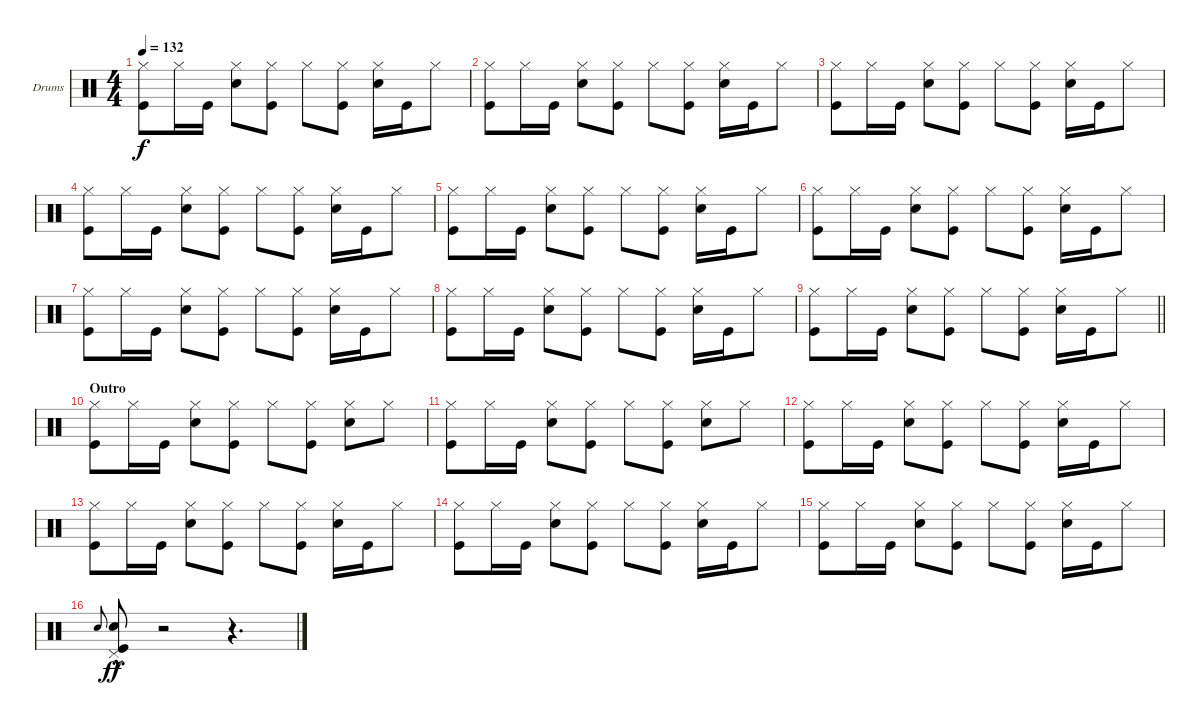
\bracketExtendMode groupsimilarinstruments
\firstSystemTrackNameOrientation horizontal
\otherSystemsTrackNameOrientation horizontal
\track ("Fabrizio Moretti" "Drums") {instrument percussion}
\staff {score}
\articulation defaults
\ts (4 4)
\tempo 132
\clef neutral
\ks c
("Hi-Hat (closed)" "Kick (hit)").8{dy f} "Hi-Hat (closed)".16 "Kick (hit)".16 ("Hi-Hat (closed)" "Snare (hit) 2").8 ("Hi-Hat (closed)" "Kick (hit)").8 "Hi-Hat (closed)".8 ("Hi-Hat (closed)" "Kick (hit)").8 ("Hi-Hat (closed)" "Snare (hit) 2").16 "Kick (hit)".16 "Hi-Hat (closed)".8 |
("Hi-Hat (closed)" "Kick (hit)").8 "Hi-Hat (closed)".16 "Kick (hit)".16 ("Hi-Hat (closed)" "Snare (hit) 2").8 ("Hi-Hat (closed)" "Kick (hit)").8 "Hi-Hat (closed)".8 ("Hi-Hat (closed)" "Kick (hit)").8 ("Hi-Hat (closed)" "Snare (hit) 2").16 "Kick (hit)".16 "Hi-Hat (closed)".8 |
("Hi-Hat (closed)" "Kick (hit)").8 "Hi-Hat (closed)".16 "Kick (hit)".16 ("Hi-Hat (closed)" "Snare (hit) 2").8 ("Hi-Hat (closed)" "Kick (hit)").8 "Hi-Hat (closed)".8 ("Hi-Hat (closed)" "Kick (hit)").8 ("Hi-Hat (closed)" "Snare (hit) 2").16 "Kick (hit)".16 "Hi-Hat (closed)".8 |
("Hi-Hat (closed)" "Kick (hit)").8 "Hi-Hat (closed)".16 "Kick (hit)".16 ("Hi-Hat (closed)" "Snare (hit) 2").8 ("Hi-Hat (closed)" "Kick (hit)").8 "Hi-Hat (closed)".8 ("Hi-Hat (closed)" "Kick (hit)").8 ("Hi-Hat (closed)" "Snare (hit) 2").16 "Kick (hit)".16 "Hi-Hat (closed)".8 |
("Hi-Hat (closed)" "Kick (hit)").8 "Hi-Hat (closed)".16 "Kick (hit)".16 ("Hi-Hat (closed)" "Snare (hit) 2").8 ("Hi-Hat (closed)" "Kick (hit)").8 "Hi-Hat (closed)".8 ("Hi-Hat (closed)" "Kick (hit)").8 ("Hi-Hat (closed)" "Snare (hit) 2").16 "Kick (hit)".16 "Hi-Hat (closed)".8 |
("Hi-Hat (closed)" "Kick (hit)").8 "Hi-Hat (closed)".16 "Kick (hit)".16 ("Hi-Hat (closed)" "Snare (hit) 2").8 ("Hi-Hat (closed)" "Kick (hit)").8 "Hi-Hat (closed)".8 ("Hi-Hat (closed)" "Kick (hit)").8 ("Hi-Hat (closed)" "Snare (hit) 2").16 "Kick (hit)".16 "Hi-Hat (closed)".8 |
("Hi-Hat (closed)" "Kick (hit)").8 "Hi-Hat (closed)".16 "Kick (hit)".16 ("Hi-Hat (closed)" "Snare (hit) 2").8 ("Hi-Hat (closed)" "Kick (hit)").8 "Hi-Hat (closed)".8 ("Hi-Hat (closed)" "Kick (hit)").8 ("Hi-Hat (closed)" "Snare (hit) 2").16 "Kick (hit)".16 "Hi-Hat (closed)".8 |
("Hi-Hat (closed)" "Kick (hit)").8 "Hi-Hat (closed)".16 "Kick (hit)".16 ("Hi-Hat (closed)" "Snare (hit) 2").8 ("Hi-Hat (closed)" "Kick (hit)").8 "Hi-Hat (closed)".8 ("Hi-Hat (closed)" "Kick (hit)").8 ("Hi-Hat (closed)" "Snare (hit) 2").16 "Kick (hit)".16 "Hi-Hat (closed)".8 |
\barLineRight lightlight
("Hi-Hat (closed)" "Kick (hit)").8 "Hi-Hat (closed)".16 "Kick (hit)".16 ("Hi-Hat (closed)" "Snare (hit) 2").8 ("Hi-Hat (closed)" "Kick (hit)").8 "Hi-Hat (closed)".8 ("Hi-Hat (closed)" "Kick (hit)").8 ("Hi-Hat (closed)" "Snare (hit) 2").16 "Kick (hit)".16 "Hi-Hat (closed)".8 |
\section ("" "Outro")
("Hi-Hat (closed)" "Kick (hit)").8 "Hi-Hat (closed)".16 "Kick (hit)".16 ("Hi-Hat (closed)" "Snare (hit) 2").8 ("Hi-Hat (closed)" "Kick (hit)").8 "Hi-Hat (closed)".8 ("Hi-Hat (closed)" "Kick (hit)").8 ("Hi-Hat (closed)" "Snare (hit) 2").8 "Hi-Hat (closed)".8 |
("Hi-Hat (closed)" "Kick (hit)").8 "Hi-Hat (closed)".16 "Kick (hit)".16 ("Hi-Hat (closed)" "Snare (hit) 2").8 ("Hi-Hat (closed)" "Kick (hit)").8 "Hi-Hat (closed)".8 ("Hi-Hat (closed)" "Kick (hit)").8 ("Hi-Hat (closed)" "Snare (hit) 2").8 "Hi-Hat (closed)".8 |
("Hi-Hat (closed)" "Kick (hit)").8 "Hi-Hat (closed)".16 "Kick (hit)".16 ("Hi-Hat (closed)" "Snare (hit) 2").8 ("Hi-Hat (closed)" "Kick (hit)").8 "Hi-Hat (closed)".8 ("Hi-Hat (closed)" "Kick (hit)").8 ("Hi-Hat (closed)" "Snare (hit) 2").16 "Kick (hit)".16 "Hi-Hat (closed)".8 |
("Hi-Hat (closed)" "Kick (hit)").8 "Hi-Hat (closed)".16 "Kick (hit)".16 ("Hi-Hat (closed)" "Snare (hit) 2").8 ("Hi-Hat (closed)" "Kick (hit)").8 "Hi-Hat (closed)".8 ("Hi-Hat (closed)" "Kick (hit)").8 ("Hi-Hat (closed)" "Snare (hit) 2").16 "Kick (hit)".16 "Hi-Hat (closed)".8 |
("Hi-Hat (closed)" "Kick (hit)").8 "Hi-Hat (closed)".16 "Kick (hit)".16 ("Hi-Hat (closed)" "Snare (hit) 2").8 ("Hi-Hat (closed)" "Kick (hit)").8 "Hi-Hat (closed)".8 ("Hi-Hat (closed)" "Kick (hit)").8 ("Hi-Hat (closed)" "Snare (hit) 2").16 "Kick (hit)".16 "Hi-Hat (closed)".8 |
("Hi-Hat (closed)" "Kick (hit)").8 "Hi-Hat (closed)".16 "Kick (hit)".16 ("Hi-Hat (closed)" "Snare (hit) 2").8 ("Hi-Hat (closed)" "Kick (hit)").8 "Hi-Hat (closed)".8 ("Hi-Hat (closed)" "Kick (hit)").8 ("Hi-Hat (closed)" "Snare (hit) 2").16 "Kick (hit)".16 "Hi-Hat (closed)".8 |
"Snare (hit) 2".8{gr onbeat} ("Pedal Hi-Hat (hit)"{hac} "Snare (hit) 2"{hac} "Kick (hit)"{hac}).8{dy ff} r.2 r.4{d}
